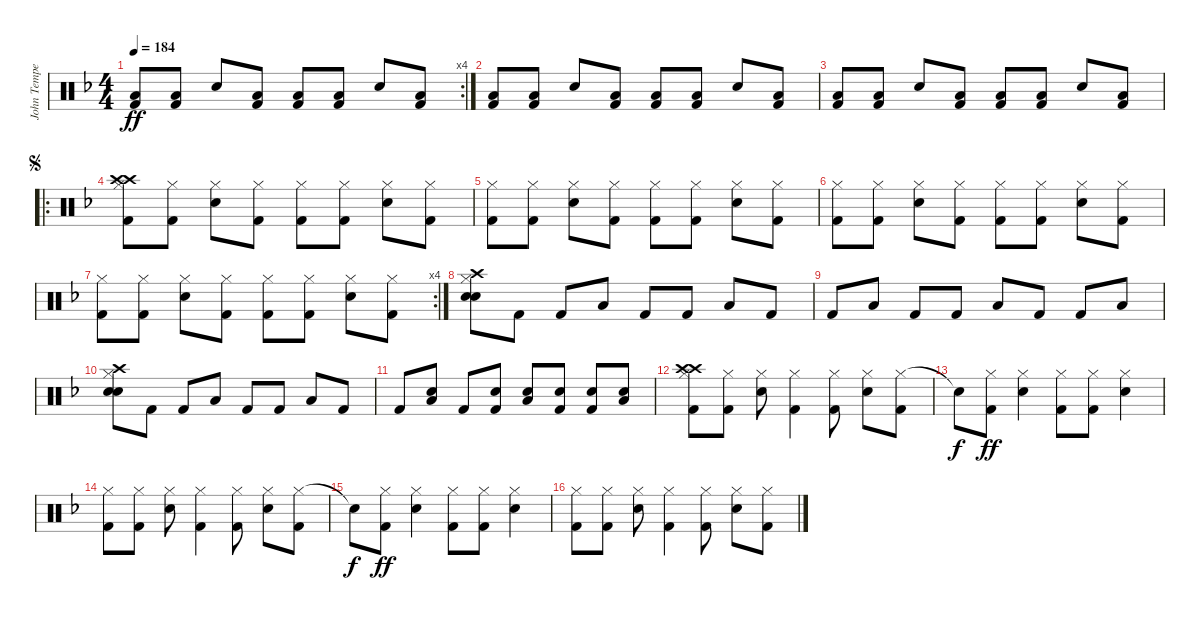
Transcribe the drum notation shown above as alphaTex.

\track ("John Tempesta " "John Tempe") {instrument percussion}
\staff {score}
\articulation defaults
\rc 4
\ts (4 4)
\tempo 184
\clef neutral
\ks f
("Low Floor Tom (hit)" "Kick (hit) 2").8{dy ff} ("Low Floor Tom (hit)" "Kick (hit) 2").8 "Electric Snare (hit)".8 ("Low Floor Tom (hit)" "Kick (hit) 2").8 ("Low Floor Tom (hit)" "Kick (hit) 2").8 ("Low Floor Tom (hit)" "Kick (hit) 2").8 "Electric Snare (hit)".8 ("Low Floor Tom (hit)" "Kick (hit) 2").8 |
("Low Floor Tom (hit)" "Kick (hit) 2").8 ("Low Floor Tom (hit)" "Kick (hit) 2").8 "Electric Snare (hit)".8 ("Low Floor Tom (hit)" "Kick (hit) 2").8 ("Low Floor Tom (hit)" "Kick (hit) 2").8 ("Low Floor Tom (hit)" "Kick (hit) 2").8 "Electric Snare (hit)".8 ("Low Floor Tom (hit)" "Kick (hit) 2").8 |
("Low Floor Tom (hit)" "Kick (hit) 2").8 ("Low Floor Tom (hit)" "Kick (hit) 2").8 "Electric Snare (hit)".8 ("Low Floor Tom (hit)" "Kick (hit) 2").8 ("Low Floor Tom (hit)" "Kick (hit) 2").8 ("Low Floor Tom (hit)" "Kick (hit) 2").8 "Electric Snare (hit)".8 ("Low Floor Tom (hit)" "Kick (hit) 2").8 |
\ro
\jump segno
("Hi-Hat (closed)" "Kick (hit) 2" "Crash high (hit)" "Crash high (hit)").8 ("Hi-Hat (closed)" "Kick (hit) 2").8 ("Hi-Hat (closed)" "Electric Snare (hit)").8 ("Hi-Hat (closed)" "Kick (hit) 2").8 ("Hi-Hat (closed)" "Kick (hit) 2").8 ("Hi-Hat (closed)" "Kick (hit) 2").8 ("Hi-Hat (closed)" "Electric Snare (hit)").8 ("Hi-Hat (closed)" "Kick (hit) 2").8 |
("Hi-Hat (closed)" "Kick (hit) 2").8 ("Hi-Hat (closed)" "Kick (hit) 2").8 ("Hi-Hat (closed)" "Electric Snare (hit)").8 ("Hi-Hat (closed)" "Kick (hit) 2").8 ("Hi-Hat (closed)" "Kick (hit) 2").8 ("Hi-Hat (closed)" "Kick (hit) 2").8 ("Hi-Hat (closed)" "Electric Snare (hit)").8 ("Hi-Hat (closed)" "Kick (hit) 2").8 |
("Hi-Hat (closed)" "Kick (hit) 2").8 ("Hi-Hat (closed)" "Kick (hit) 2").8 ("Hi-Hat (closed)" "Electric Snare (hit)").8 ("Hi-Hat (closed)" "Kick (hit) 2").8 ("Hi-Hat (closed)" "Kick (hit) 2").8 ("Hi-Hat (closed)" "Kick (hit) 2").8 ("Hi-Hat (closed)" "Electric Snare (hit)").8 ("Hi-Hat (closed)" "Kick (hit) 2").8 |
\rc 4
("Hi-Hat (closed)" "Kick (hit) 2").8 ("Hi-Hat (closed)" "Kick (hit) 2").8 ("Hi-Hat (closed)" "Electric Snare (hit)").8 ("Hi-Hat (closed)" "Kick (hit) 2").8 ("Hi-Hat (closed)" "Kick (hit) 2").8 ("Hi-Hat (closed)" "Kick (hit) 2").8 ("Hi-Hat (closed)" "Electric Snare (hit)").8 ("Hi-Hat (closed)" "Kick (hit) 2").8 |
("Crash high (hit)" "Electric Snare (hit)" "Electric Snare (hit)" "Hi-Hat (closed)").8 "Kick (hit) 2".8 "Kick (hit) 2".8 "Low Floor Tom (hit)".8 "Kick (hit) 2".8 "Kick (hit) 2".8 "Low Floor Tom (hit)".8 "Kick (hit) 2".8 |
"Kick (hit) 2".8 "Low Floor Tom (hit)".8 "Kick (hit) 2".8 "Kick (hit) 2".8 "Low Floor Tom (hit)".8 "Kick (hit) 2".8 "Kick (hit) 2".8 "Low Floor Tom (hit)".8 |
("Crash high (hit)" "Electric Snare (hit)" "Electric Snare (hit)" "Hi-Hat (closed)").8 "Kick (hit) 2".8 "Kick (hit) 2".8 "Low Floor Tom (hit)".8 "Kick (hit) 2".8 "Kick (hit) 2".8 "Low Floor Tom (hit)".8 "Kick (hit) 2".8 |
"Kick (hit) 2".8 ("Electric Snare (hit)" "Low Floor Tom (hit)").8 "Kick (hit) 2".8 ("Electric Snare (hit)" "Kick (hit) 2").8 ("Electric Snare (hit)" "Low Floor Tom (hit)").8 ("Electric Snare (hit)" "Kick (hit) 2").8 ("Electric Snare (hit)" "Kick (hit) 2").8 ("Electric Snare (hit)" "Low Floor Tom (hit)").8 |
("Hi-Hat (closed)" "Kick (hit) 2" "Crash high (hit)" "Crash high (hit)").8 ("Hi-Hat (closed)" "Kick (hit) 2").8 ("Hi-Hat (closed)" "Electric Snare (hit)").8 ("Hi-Hat (closed)" "Kick (hit) 2").4 ("Hi-Hat (closed)" "Kick (hit) 2").8 ("Hi-Hat (closed)" "Electric Snare (hit)").8 ("Hi-Hat (closed)" "Kick (hit) 2").8 |
"Snare (hit)"{t}.8{dy f} ("Hi-Hat (closed)" "Kick (hit) 2").8{dy ff} ("Hi-Hat (closed)" "Electric Snare (hit)").4 ("Hi-Hat (closed)" "Kick (hit) 2").8 ("Hi-Hat (closed)" "Kick (hit) 2").8 ("Hi-Hat (closed)" "Electric Snare (hit)").4 |
("Hi-Hat (closed)" "Kick (hit) 2").8 ("Hi-Hat (closed)" "Kick (hit) 2").8 ("Hi-Hat (closed)" "Electric Snare (hit)").8 ("Hi-Hat (closed)" "Kick (hit) 2").4 ("Hi-Hat (closed)" "Kick (hit) 2").8 ("Hi-Hat (closed)" "Electric Snare (hit)").8 ("Hi-Hat (closed)" "Kick (hit) 2").8 |
"Snare (hit)"{t}.8{dy f} ("Hi-Hat (closed)" "Kick (hit) 2").8{dy ff} ("Hi-Hat (closed)" "Electric Snare (hit)").4 ("Hi-Hat (closed)" "Kick (hit) 2").8 ("Hi-Hat (closed)" "Kick (hit) 2").8 ("Hi-Hat (closed)" "Electric Snare (hit)").4 |
("Hi-Hat (closed)" "Kick (hit) 2").8 ("Hi-Hat (closed)" "Kick (hit) 2").8 ("Hi-Hat (closed)" "Electric Snare (hit)").8 ("Hi-Hat (closed)" "Kick (hit) 2").4 ("Hi-Hat (closed)" "Kick (hit) 2").8 ("Hi-Hat (closed)" "Electric Snare (hit)").8 ("Hi-Hat (closed)" "Kick (hit) 2").8
